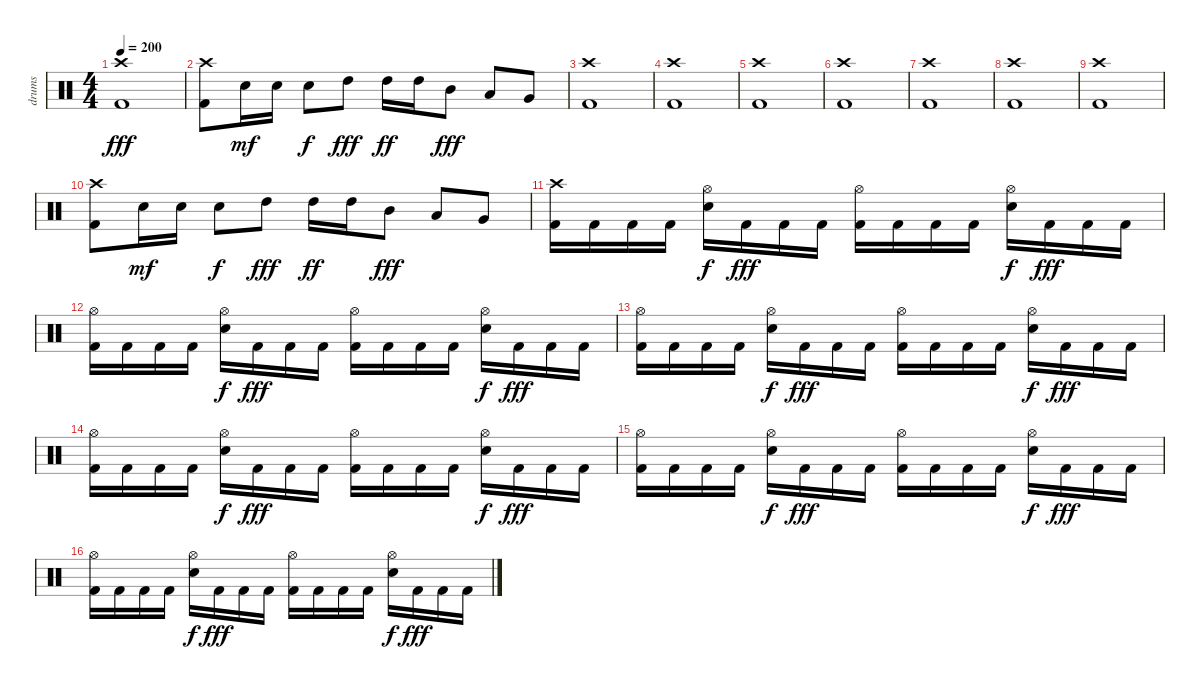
\track ("drums" "drums") {instrument percussion}
\staff {score}
\articulation defaults
\ts (4 4)
\tempo 200
\clef neutral
\ks c
("Crash high (hit)" "Kick (hit) 2").1{dy fff} |
("Crash high (hit)" "Kick (hit) 2").8 "Snare (hit) 2".16{dy mf} "Snare (hit) 2".16 "Snare (hit) 2".8{dy f} "High Tom (hit)".8{dy fff} "High Tom (hit)".16{dy ff} "High Tom (hit)".16 "Mid Tom (hit)".8{dy fff} "Low Tom (hit)".8 "Very Low Tom (hit)".8 |
("Crash high (hit)" "Kick (hit) 2").1 |
("Crash high (hit)" "Kick (hit) 2").1 |
("Crash high (hit)" "Kick (hit) 2").1 |
("Crash high (hit)" "Kick (hit) 2").1 |
("Crash high (hit)" "Kick (hit) 2").1 |
("Crash high (hit)" "Kick (hit) 2").1 |
("Crash high (hit)" "Kick (hit) 2").1 |
("Crash high (hit)" "Kick (hit) 2").8 "Snare (hit) 2".16{dy mf} "Snare (hit) 2".16 "Snare (hit) 2".8{dy f} "High Tom (hit)".8{dy fff} "High Tom (hit)".16{dy ff} "High Tom (hit)".16 "Mid Tom (hit)".8{dy fff} "Low Tom (hit)".8 "Very Low Tom (hit)".8 |
("Crash high (hit)" "Kick (hit) 2").16 "Kick (hit) 2".16 "Kick (hit) 2".16 "Kick (hit) 2".16 ("Hi-Hat (open)" "Snare (hit) 2").16{dy f} "Kick (hit) 2".16{dy fff} "Kick (hit) 2".16 "Kick (hit) 2".16 ("Hi-Hat (open)" "Kick (hit) 2").16 "Kick (hit) 2".16 "Kick (hit) 2".16 "Kick (hit) 2".16 ("Hi-Hat (open)" "Snare (hit) 2").16{dy f} "Kick (hit) 2".16{dy fff} "Kick (hit) 2".16 "Kick (hit) 2".16 |
("Hi-Hat (open)" "Kick (hit) 2").16 "Kick (hit) 2".16 "Kick (hit) 2".16 "Kick (hit) 2".16 ("Hi-Hat (open)" "Snare (hit) 2").16{dy f} "Kick (hit) 2".16{dy fff} "Kick (hit) 2".16 "Kick (hit) 2".16 ("Hi-Hat (open)" "Kick (hit) 2").16 "Kick (hit) 2".16 "Kick (hit) 2".16 "Kick (hit) 2".16 ("Hi-Hat (open)" "Snare (hit) 2").16{dy f} "Kick (hit) 2".16{dy fff} "Kick (hit) 2".16 "Kick (hit) 2".16 |
("Hi-Hat (open)" "Kick (hit) 2").16 "Kick (hit) 2".16 "Kick (hit) 2".16 "Kick (hit) 2".16 ("Hi-Hat (open)" "Snare (hit) 2").16{dy f} "Kick (hit) 2".16{dy fff} "Kick (hit) 2".16 "Kick (hit) 2".16 ("Hi-Hat (open)" "Kick (hit) 2").16 "Kick (hit) 2".16 "Kick (hit) 2".16 "Kick (hit) 2".16 ("Hi-Hat (open)" "Snare (hit) 2").16{dy f} "Kick (hit) 2".16{dy fff} "Kick (hit) 2".16 "Kick (hit) 2".16 |
("Hi-Hat (open)" "Kick (hit) 2").16 "Kick (hit) 2".16 "Kick (hit) 2".16 "Kick (hit) 2".16 ("Hi-Hat (open)" "Snare (hit) 2").16{dy f} "Kick (hit) 2".16{dy fff} "Kick (hit) 2".16 "Kick (hit) 2".16 ("Hi-Hat (open)" "Kick (hit) 2").16 "Kick (hit) 2".16 "Kick (hit) 2".16 "Kick (hit) 2".16 ("Hi-Hat (open)" "Snare (hit) 2").16{dy f} "Kick (hit) 2".16{dy fff} "Kick (hit) 2".16 "Kick (hit) 2".16 |
("Hi-Hat (open)" "Kick (hit) 2").16 "Kick (hit) 2".16 "Kick (hit) 2".16 "Kick (hit) 2".16 ("Hi-Hat (open)" "Snare (hit) 2").16{dy f} "Kick (hit) 2".16{dy fff} "Kick (hit) 2".16 "Kick (hit) 2".16 ("Hi-Hat (open)" "Kick (hit) 2").16 "Kick (hit) 2".16 "Kick (hit) 2".16 "Kick (hit) 2".16 ("Hi-Hat (open)" "Snare (hit) 2").16{dy f} "Kick (hit) 2".16{dy fff} "Kick (hit) 2".16 "Kick (hit) 2".16 |
("Hi-Hat (open)" "Kick (hit) 2").16 "Kick (hit) 2".16 "Kick (hit) 2".16 "Kick (hit) 2".16 ("Hi-Hat (open)" "Snare (hit) 2").16{dy f} "Kick (hit) 2".16{dy fff} "Kick (hit) 2".16 "Kick (hit) 2".16 ("Hi-Hat (open)" "Kick (hit) 2").16 "Kick (hit) 2".16 "Kick (hit) 2".16 "Kick (hit) 2".16 ("Hi-Hat (open)" "Snare (hit) 2").16{dy f} "Kick (hit) 2".16{dy fff} "Kick (hit) 2".16 "Kick (hit) 2".16
